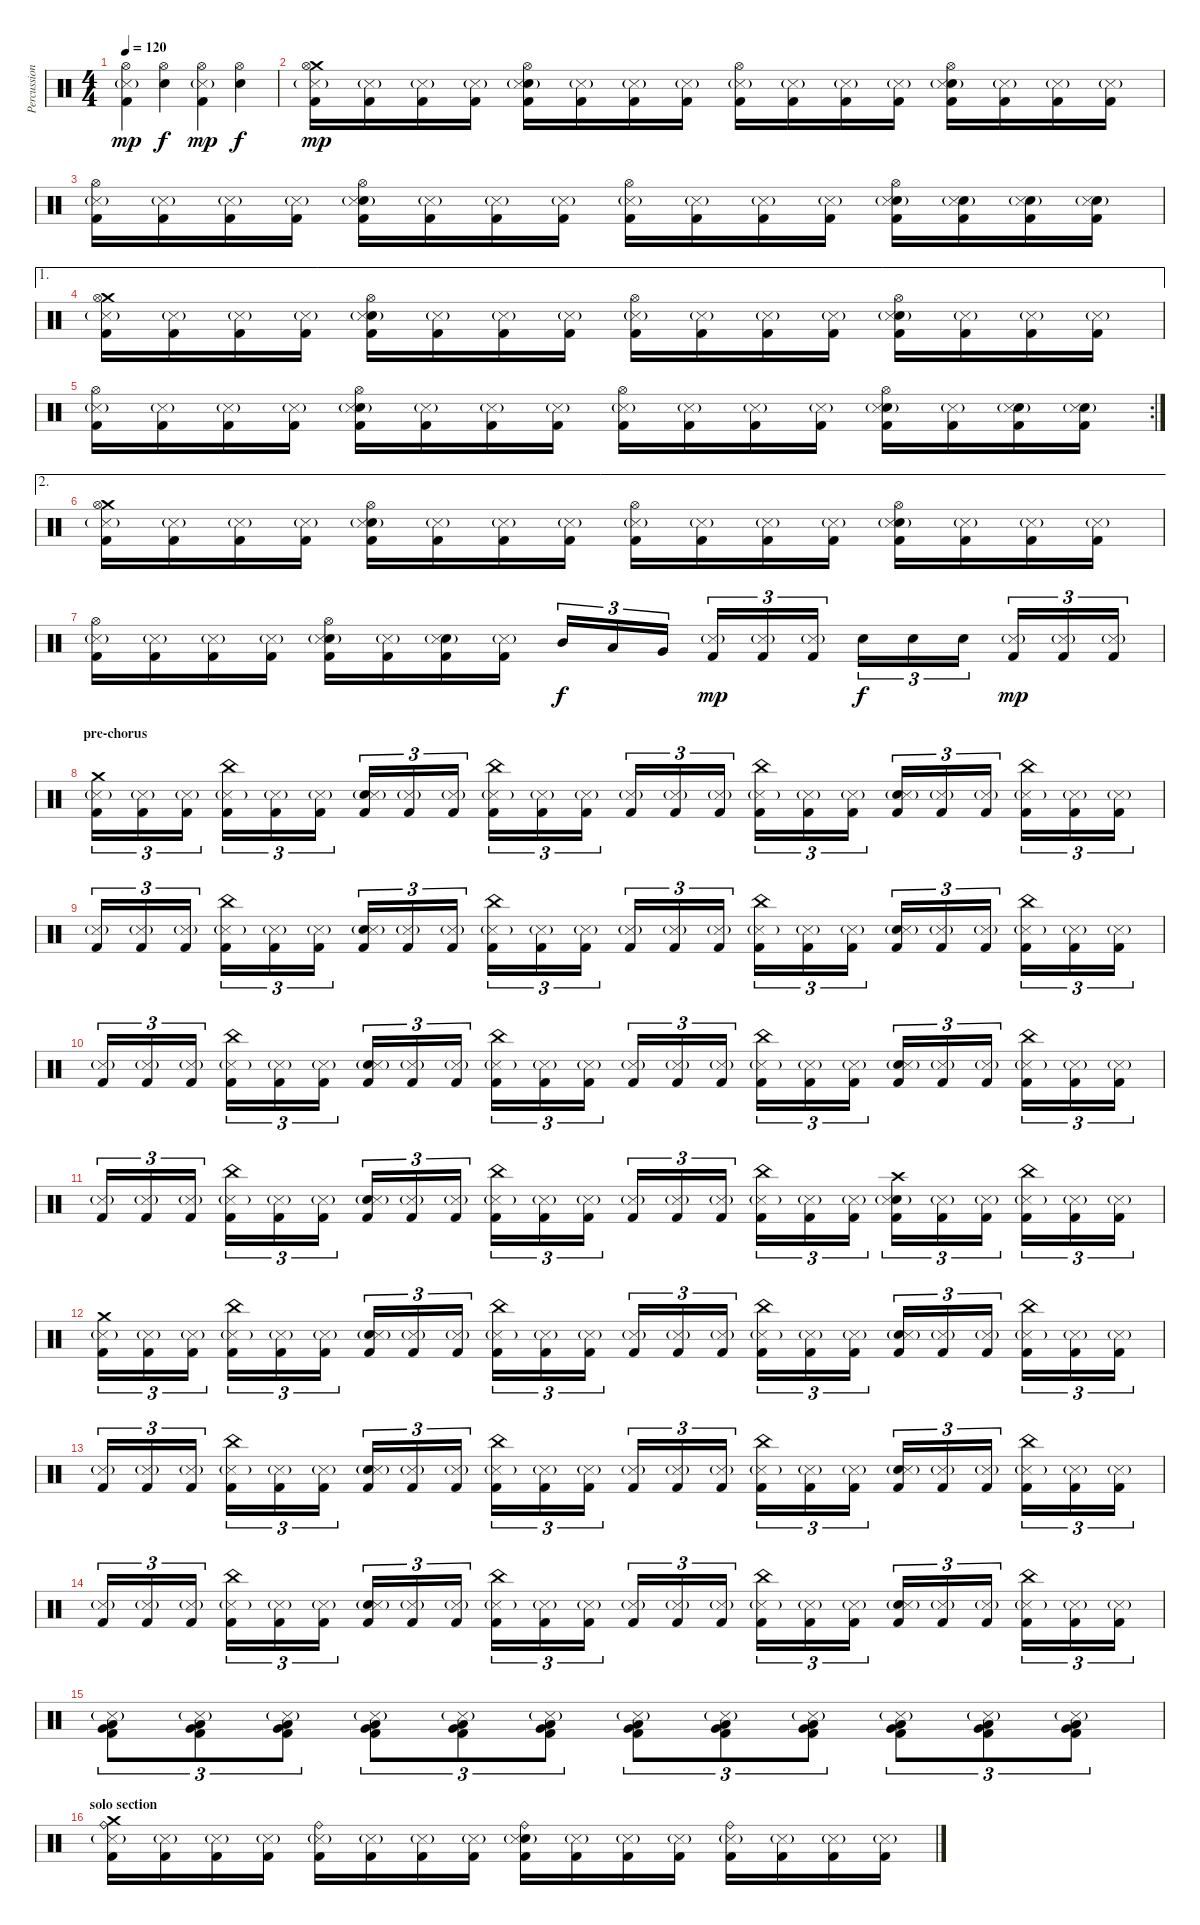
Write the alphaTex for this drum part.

\track ("Percussion" "Percussion") {instrument percussion}
\staff {score}
\articulation defaults
\ts (4 4)
\tempo 120
\clef neutral
\ks c
("Hi-Hat (open)" "Snare (side stick) 3"{g} "Kick (hit) 2").4{dy mp} ("Hi-Hat (open)" "Electric Snare (hit)").4{dy f} ("Hi-Hat (open)" "Snare (side stick) 3"{g} "Kick (hit) 2").4{dy mp} ("Hi-Hat (open)" "Electric Snare (hit)").4{dy f} |
("Crash medium (hit)" "Hi-Hat (open)" "Snare (side stick) 3"{g} "Kick (hit) 2").16{dy mp} ("Snare (side stick) 3"{g} "Kick (hit) 2").16 ("Snare (side stick) 3"{g} "Kick (hit) 2").16 ("Snare (side stick) 3"{g} "Kick (hit) 2").16 ("Hi-Hat (open)" "Electric Snare (hit)" "Snare (side stick) 3"{g} "Kick (hit) 2").16 ("Snare (side stick) 3"{g} "Kick (hit) 2").16 ("Snare (side stick) 3"{g} "Kick (hit) 2").16 ("Snare (side stick) 3"{g} "Kick (hit) 2").16 ("Hi-Hat (open)" "Snare (side stick) 3"{g} "Kick (hit) 2").16 ("Snare (side stick) 3"{g} "Kick (hit) 2").16 ("Snare (side stick) 3"{g} "Kick (hit) 2").16 ("Snare (side stick) 3"{g} "Kick (hit) 2").16 ("Hi-Hat (open)" "Electric Snare (hit)" "Snare (side stick) 3"{g} "Kick (hit) 2").16 ("Snare (side stick) 3"{g} "Kick (hit) 2").16 ("Snare (side stick) 3"{g} "Kick (hit) 2").16 ("Snare (side stick) 3"{g} "Kick (hit) 2").16 |
("Hi-Hat (open)" "Snare (side stick) 3"{g} "Kick (hit) 2").16 ("Snare (side stick) 3"{g} "Kick (hit) 2").16 ("Snare (side stick) 3"{g} "Kick (hit) 2").16 ("Snare (side stick) 3"{g} "Kick (hit) 2").16 ("Hi-Hat (open)" "Electric Snare (hit)" "Snare (side stick) 3"{g} "Kick (hit) 2").16 ("Snare (side stick) 3"{g} "Kick (hit) 2").16 ("Snare (side stick) 3"{g} "Kick (hit) 2").16 ("Snare (side stick) 3"{g} "Kick (hit) 2").16 ("Hi-Hat (open)" "Snare (side stick) 3"{g} "Kick (hit) 2").16 ("Snare (side stick) 3"{g} "Kick (hit) 2").16 ("Snare (side stick) 3"{g} "Kick (hit) 2").16 ("Snare (side stick) 3"{g} "Kick (hit) 2").16 ("Hi-Hat (open)" "Electric Snare (hit)" "Snare (side stick) 3"{g} "Kick (hit) 2").16 ("Electric Snare (hit)" "Snare (side stick) 3"{g} "Kick (hit) 2").16 ("Electric Snare (hit)" "Snare (side stick) 3"{g} "Kick (hit) 2").16 ("Electric Snare (hit)" "Snare (side stick) 3"{g} "Kick (hit) 2").16 |
\ae 1
("Crash medium (hit)" "Hi-Hat (open)" "Snare (side stick) 3"{g} "Kick (hit) 2").16 ("Snare (side stick) 3"{g} "Kick (hit) 2").16 ("Snare (side stick) 3"{g} "Kick (hit) 2").16 ("Snare (side stick) 3"{g} "Kick (hit) 2").16 ("Hi-Hat (open)" "Electric Snare (hit)" "Snare (side stick) 3"{g} "Kick (hit) 2").16 ("Snare (side stick) 3"{g} "Kick (hit) 2").16 ("Snare (side stick) 3"{g} "Kick (hit) 2").16 ("Snare (side stick) 3"{g} "Kick (hit) 2").16 ("Hi-Hat (open)" "Snare (side stick) 3"{g} "Kick (hit) 2").16 ("Snare (side stick) 3"{g} "Kick (hit) 2").16 ("Snare (side stick) 3"{g} "Kick (hit) 2").16 ("Snare (side stick) 3"{g} "Kick (hit) 2").16 ("Hi-Hat (open)" "Electric Snare (hit)" "Snare (side stick) 3"{g} "Kick (hit) 2").16 ("Snare (side stick) 3"{g} "Kick (hit) 2").16 ("Snare (side stick) 3"{g} "Kick (hit) 2").16 ("Snare (side stick) 3"{g} "Kick (hit) 2").16 |
\rc 2
("Hi-Hat (open)" "Snare (side stick) 3"{g} "Kick (hit) 2").16 ("Snare (side stick) 3"{g} "Kick (hit) 2").16 ("Snare (side stick) 3"{g} "Kick (hit) 2").16 ("Snare (side stick) 3"{g} "Kick (hit) 2").16 ("Hi-Hat (open)" "Electric Snare (hit)" "Snare (side stick) 3"{g} "Kick (hit) 2").16 ("Snare (side stick) 3"{g} "Kick (hit) 2").16 ("Snare (side stick) 3"{g} "Kick (hit) 2").16 ("Snare (side stick) 3"{g} "Kick (hit) 2").16 ("Hi-Hat (open)" "Snare (side stick) 3"{g} "Kick (hit) 2").16 ("Snare (side stick) 3"{g} "Kick (hit) 2").16 ("Snare (side stick) 3"{g} "Kick (hit) 2").16 ("Snare (side stick) 3"{g} "Kick (hit) 2").16 ("Hi-Hat (open)" "Electric Snare (hit)" "Snare (side stick) 3"{g} "Kick (hit) 2").16 ("Snare (side stick) 3"{g} "Kick (hit) 2").16 ("Electric Snare (hit)" "Snare (side stick) 3"{g} "Kick (hit) 2").16 ("Electric Snare (hit)" "Snare (side stick) 3"{g} "Kick (hit) 2").16 |
\ae 2
("Crash medium (hit)" "Hi-Hat (open)" "Snare (side stick) 3"{g} "Kick (hit) 2").16 ("Snare (side stick) 3"{g} "Kick (hit) 2").16 ("Snare (side stick) 3"{g} "Kick (hit) 2").16 ("Snare (side stick) 3"{g} "Kick (hit) 2").16 ("Hi-Hat (open)" "Electric Snare (hit)" "Snare (side stick) 3"{g} "Kick (hit) 2").16 ("Snare (side stick) 3"{g} "Kick (hit) 2").16 ("Snare (side stick) 3"{g} "Kick (hit) 2").16 ("Snare (side stick) 3"{g} "Kick (hit) 2").16 ("Hi-Hat (open)" "Snare (side stick) 3"{g} "Kick (hit) 2").16 ("Snare (side stick) 3"{g} "Kick (hit) 2").16 ("Snare (side stick) 3"{g} "Kick (hit) 2").16 ("Snare (side stick) 3"{g} "Kick (hit) 2").16 ("Hi-Hat (open)" "Electric Snare (hit)" "Snare (side stick) 3"{g} "Kick (hit) 2").16 ("Snare (side stick) 3"{g} "Kick (hit) 2").16 ("Snare (side stick) 3"{g} "Kick (hit) 2").16 ("Snare (side stick) 3"{g} "Kick (hit) 2").16 |
("Hi-Hat (open)" "Snare (side stick) 3"{g} "Kick (hit) 2").16 ("Snare (side stick) 3"{g} "Kick (hit) 2").16 ("Snare (side stick) 3"{g} "Kick (hit) 2").16 ("Snare (side stick) 3"{g} "Kick (hit) 2").16 ("Hi-Hat (open)" "Electric Snare (hit)" "Snare (side stick) 3"{g} "Kick (hit) 2").16 ("Snare (side stick) 3"{g} "Kick (hit) 2").16 ("Electric Snare (hit)" "Snare (side stick) 3"{g} "Kick (hit) 2").16 ("Snare (side stick) 3"{g} "Kick (hit) 2").16 "Mid Tom (hit)".16{tu (3 2) dy f} "Low Tom (hit)".16{tu (3 2)} "Very Low Tom (hit)".16{tu (3 2)} ("Snare (side stick) 3"{g} "Kick (hit) 2").16{tu (3 2) dy mp} ("Snare (side stick) 3"{g} "Kick (hit) 2").16{tu (3 2)} ("Snare (side stick) 3"{g} "Kick (hit) 2").16{tu (3 2)} "Electric Snare (hit)".16{tu (3 2) dy f} "Electric Snare (hit)".16{tu (3 2)} "Electric Snare (hit)".16{tu (3 2)} ("Snare (side stick) 3"{g} "Kick (hit) 2").16{tu (3 2) dy mp} ("Snare (side stick) 3"{g} "Kick (hit) 2").16{tu (3 2)} ("Snare (side stick) 3"{g} "Kick (hit) 2").16{tu (3 2)} |
\section ("" "pre-chorus")
("Crash medium (hit)" "Snare (side stick) 3"{g} "Kick (hit) 2").16{tu (3 2)} ("Snare (side stick) 3"{g} "Kick (hit) 2").16{tu (3 2)} ("Snare (side stick) 3"{g} "Kick (hit) 2").16{tu (3 2)} ("China (hit)" "Snare (side stick) 3"{g} "Kick (hit) 2").16{tu (3 2)} ("Snare (side stick) 3"{g} "Kick (hit) 2").16{tu (3 2)} ("Snare (side stick) 3"{g} "Kick (hit) 2").16{tu (3 2)} ("Electric Snare (hit)" "Snare (side stick) 3"{g} "Kick (hit) 2").16{tu (3 2)} ("Snare (side stick) 3"{g} "Kick (hit) 2").16{tu (3 2)} ("Snare (side stick) 3"{g} "Kick (hit) 2").16{tu (3 2)} ("China (hit)" "Snare (side stick) 3"{g} "Kick (hit) 2").16{tu (3 2)} ("Snare (side stick) 3"{g} "Kick (hit) 2").16{tu (3 2)} ("Snare (side stick) 3"{g} "Kick (hit) 2").16{tu (3 2)} ("Snare (side stick) 3"{g} "Kick (hit) 2").16{tu (3 2)} ("Snare (side stick) 3"{g} "Kick (hit) 2").16{tu (3 2)} ("Snare (side stick) 3"{g} "Kick (hit) 2").16{tu (3 2)} ("China (hit)" "Snare (side stick) 3"{g} "Kick (hit) 2").16{tu (3 2)} ("Snare (side stick) 3"{g} "Kick (hit) 2").16{tu (3 2)} ("Snare (side stick) 3"{g} "Kick (hit) 2").16{tu (3 2)} ("Electric Snare (hit)" "Snare (side stick) 3"{g} "Kick (hit) 2").16{tu (3 2)} ("Snare (side stick) 3"{g} "Kick (hit) 2").16{tu (3 2)} ("Snare (side stick) 3"{g} "Kick (hit) 2").16{tu (3 2)} ("China (hit)" "Snare (side stick) 3"{g} "Kick (hit) 2").16{tu (3 2)} ("Snare (side stick) 3"{g} "Kick (hit) 2").16{tu (3 2)} ("Snare (side stick) 3"{g} "Kick (hit) 2").16{tu (3 2)} |
("Snare (side stick) 3"{g} "Kick (hit) 2").16{tu (3 2)} ("Snare (side stick) 3"{g} "Kick (hit) 2").16{tu (3 2)} ("Snare (side stick) 3"{g} "Kick (hit) 2").16{tu (3 2)} ("China (hit)" "Snare (side stick) 3"{g} "Kick (hit) 2").16{tu (3 2)} ("Snare (side stick) 3"{g} "Kick (hit) 2").16{tu (3 2)} ("Snare (side stick) 3"{g} "Kick (hit) 2").16{tu (3 2)} ("Electric Snare (hit)" "Snare (side stick) 3"{g} "Kick (hit) 2").16{tu (3 2)} ("Snare (side stick) 3"{g} "Kick (hit) 2").16{tu (3 2)} ("Snare (side stick) 3"{g} "Kick (hit) 2").16{tu (3 2)} ("China (hit)" "Snare (side stick) 3"{g} "Kick (hit) 2").16{tu (3 2)} ("Snare (side stick) 3"{g} "Kick (hit) 2").16{tu (3 2)} ("Snare (side stick) 3"{g} "Kick (hit) 2").16{tu (3 2)} ("Snare (side stick) 3"{g} "Kick (hit) 2").16{tu (3 2)} ("Snare (side stick) 3"{g} "Kick (hit) 2").16{tu (3 2)} ("Snare (side stick) 3"{g} "Kick (hit) 2").16{tu (3 2)} ("China (hit)" "Snare (side stick) 3"{g} "Kick (hit) 2").16{tu (3 2)} ("Snare (side stick) 3"{g} "Kick (hit) 2").16{tu (3 2)} ("Snare (side stick) 3"{g} "Kick (hit) 2").16{tu (3 2)} ("Electric Snare (hit)" "Snare (side stick) 3"{g} "Kick (hit) 2").16{tu (3 2)} ("Snare (side stick) 3"{g} "Kick (hit) 2").16{tu (3 2)} ("Snare (side stick) 3"{g} "Kick (hit) 2").16{tu (3 2)} ("China (hit)" "Snare (side stick) 3"{g} "Kick (hit) 2").16{tu (3 2)} ("Snare (side stick) 3"{g} "Kick (hit) 2").16{tu (3 2)} ("Snare (side stick) 3"{g} "Kick (hit) 2").16{tu (3 2)} |
("Snare (side stick) 3"{g} "Kick (hit) 2").16{tu (3 2)} ("Snare (side stick) 3"{g} "Kick (hit) 2").16{tu (3 2)} ("Snare (side stick) 3"{g} "Kick (hit) 2").16{tu (3 2)} ("China (hit)" "Snare (side stick) 3"{g} "Kick (hit) 2").16{tu (3 2)} ("Snare (side stick) 3"{g} "Kick (hit) 2").16{tu (3 2)} ("Snare (side stick) 3"{g} "Kick (hit) 2").16{tu (3 2)} ("Electric Snare (hit)" "Snare (side stick) 3"{g} "Kick (hit) 2").16{tu (3 2)} ("Snare (side stick) 3"{g} "Kick (hit) 2").16{tu (3 2)} ("Snare (side stick) 3"{g} "Kick (hit) 2").16{tu (3 2)} ("China (hit)" "Snare (side stick) 3"{g} "Kick (hit) 2").16{tu (3 2)} ("Snare (side stick) 3"{g} "Kick (hit) 2").16{tu (3 2)} ("Snare (side stick) 3"{g} "Kick (hit) 2").16{tu (3 2)} ("Snare (side stick) 3"{g} "Kick (hit) 2").16{tu (3 2)} ("Snare (side stick) 3"{g} "Kick (hit) 2").16{tu (3 2)} ("Snare (side stick) 3"{g} "Kick (hit) 2").16{tu (3 2)} ("China (hit)" "Snare (side stick) 3"{g} "Kick (hit) 2").16{tu (3 2)} ("Snare (side stick) 3"{g} "Kick (hit) 2").16{tu (3 2)} ("Snare (side stick) 3"{g} "Kick (hit) 2").16{tu (3 2)} ("Electric Snare (hit)" "Snare (side stick) 3"{g} "Kick (hit) 2").16{tu (3 2)} ("Snare (side stick) 3"{g} "Kick (hit) 2").16{tu (3 2)} ("Snare (side stick) 3"{g} "Kick (hit) 2").16{tu (3 2)} ("China (hit)" "Snare (side stick) 3"{g} "Kick (hit) 2").16{tu (3 2)} ("Snare (side stick) 3"{g} "Kick (hit) 2").16{tu (3 2)} ("Snare (side stick) 3"{g} "Kick (hit) 2").16{tu (3 2)} |
("Snare (side stick) 3"{g} "Kick (hit) 2").16{tu (3 2)} ("Snare (side stick) 3"{g} "Kick (hit) 2").16{tu (3 2)} ("Snare (side stick) 3"{g} "Kick (hit) 2").16{tu (3 2)} ("China (hit)" "Snare (side stick) 3"{g} "Kick (hit) 2").16{tu (3 2)} ("Snare (side stick) 3"{g} "Kick (hit) 2").16{tu (3 2)} ("Snare (side stick) 3"{g} "Kick (hit) 2").16{tu (3 2)} ("Electric Snare (hit)" "Snare (side stick) 3"{g} "Kick (hit) 2").16{tu (3 2)} ("Snare (side stick) 3"{g} "Kick (hit) 2").16{tu (3 2)} ("Snare (side stick) 3"{g} "Kick (hit) 2").16{tu (3 2)} ("China (hit)" "Snare (side stick) 3"{g} "Kick (hit) 2").16{tu (3 2)} ("Snare (side stick) 3"{g} "Kick (hit) 2").16{tu (3 2)} ("Snare (side stick) 3"{g} "Kick (hit) 2").16{tu (3 2)} ("Snare (side stick) 3"{g} "Kick (hit) 2").16{tu (3 2)} ("Snare (side stick) 3"{g} "Kick (hit) 2").16{tu (3 2)} ("Snare (side stick) 3"{g} "Kick (hit) 2").16{tu (3 2)} ("China (hit)" "Snare (side stick) 3"{g} "Kick (hit) 2").16{tu (3 2)} ("Snare (side stick) 3"{g} "Kick (hit) 2").16{tu (3 2)} ("Snare (side stick) 3"{g} "Kick (hit) 2").16{tu (3 2)} ("Crash high (hit)" "Electric Snare (hit)" "Snare (side stick) 3"{g} "Kick (hit) 2").16{tu (3 2)} ("Snare (side stick) 3"{g} "Kick (hit) 2").16{tu (3 2)} ("Snare (side stick) 3"{g} "Kick (hit) 2").16{tu (3 2)} ("China (hit)" "Snare (side stick) 3"{g} "Kick (hit) 2").16{tu (3 2)} ("Snare (side stick) 3"{g} "Kick (hit) 2").16{tu (3 2)} ("Snare (side stick) 3"{g} "Kick (hit) 2").16{tu (3 2)} |
("Crash medium (hit)" "Snare (side stick) 3"{g} "Kick (hit) 2").16{tu (3 2)} ("Snare (side stick) 3"{g} "Kick (hit) 2").16{tu (3 2)} ("Snare (side stick) 3"{g} "Kick (hit) 2").16{tu (3 2)} ("China (hit)" "Snare (side stick) 3"{g} "Kick (hit) 2").16{tu (3 2)} ("Snare (side stick) 3"{g} "Kick (hit) 2").16{tu (3 2)} ("Snare (side stick) 3"{g} "Kick (hit) 2").16{tu (3 2)} ("Electric Snare (hit)" "Snare (side stick) 3"{g} "Kick (hit) 2").16{tu (3 2)} ("Snare (side stick) 3"{g} "Kick (hit) 2").16{tu (3 2)} ("Snare (side stick) 3"{g} "Kick (hit) 2").16{tu (3 2)} ("China (hit)" "Snare (side stick) 3"{g} "Kick (hit) 2").16{tu (3 2)} ("Snare (side stick) 3"{g} "Kick (hit) 2").16{tu (3 2)} ("Snare (side stick) 3"{g} "Kick (hit) 2").16{tu (3 2)} ("Snare (side stick) 3"{g} "Kick (hit) 2").16{tu (3 2)} ("Snare (side stick) 3"{g} "Kick (hit) 2").16{tu (3 2)} ("Snare (side stick) 3"{g} "Kick (hit) 2").16{tu (3 2)} ("China (hit)" "Snare (side stick) 3"{g} "Kick (hit) 2").16{tu (3 2)} ("Snare (side stick) 3"{g} "Kick (hit) 2").16{tu (3 2)} ("Snare (side stick) 3"{g} "Kick (hit) 2").16{tu (3 2)} ("Electric Snare (hit)" "Snare (side stick) 3"{g} "Kick (hit) 2").16{tu (3 2)} ("Snare (side stick) 3"{g} "Kick (hit) 2").16{tu (3 2)} ("Snare (side stick) 3"{g} "Kick (hit) 2").16{tu (3 2)} ("China (hit)" "Snare (side stick) 3"{g} "Kick (hit) 2").16{tu (3 2)} ("Snare (side stick) 3"{g} "Kick (hit) 2").16{tu (3 2)} ("Snare (side stick) 3"{g} "Kick (hit) 2").16{tu (3 2)} |
("Snare (side stick) 3"{g} "Kick (hit) 2").16{tu (3 2)} ("Snare (side stick) 3"{g} "Kick (hit) 2").16{tu (3 2)} ("Snare (side stick) 3"{g} "Kick (hit) 2").16{tu (3 2)} ("China (hit)" "Snare (side stick) 3"{g} "Kick (hit) 2").16{tu (3 2)} ("Snare (side stick) 3"{g} "Kick (hit) 2").16{tu (3 2)} ("Snare (side stick) 3"{g} "Kick (hit) 2").16{tu (3 2)} ("Electric Snare (hit)" "Snare (side stick) 3"{g} "Kick (hit) 2").16{tu (3 2)} ("Snare (side stick) 3"{g} "Kick (hit) 2").16{tu (3 2)} ("Snare (side stick) 3"{g} "Kick (hit) 2").16{tu (3 2)} ("China (hit)" "Snare (side stick) 3"{g} "Kick (hit) 2").16{tu (3 2)} ("Snare (side stick) 3"{g} "Kick (hit) 2").16{tu (3 2)} ("Snare (side stick) 3"{g} "Kick (hit) 2").16{tu (3 2)} ("Snare (side stick) 3"{g} "Kick (hit) 2").16{tu (3 2)} ("Snare (side stick) 3"{g} "Kick (hit) 2").16{tu (3 2)} ("Snare (side stick) 3"{g} "Kick (hit) 2").16{tu (3 2)} ("China (hit)" "Snare (side stick) 3"{g} "Kick (hit) 2").16{tu (3 2)} ("Snare (side stick) 3"{g} "Kick (hit) 2").16{tu (3 2)} ("Snare (side stick) 3"{g} "Kick (hit) 2").16{tu (3 2)} ("Electric Snare (hit)" "Snare (side stick) 3"{g} "Kick (hit) 2").16{tu (3 2)} ("Snare (side stick) 3"{g} "Kick (hit) 2").16{tu (3 2)} ("Snare (side stick) 3"{g} "Kick (hit) 2").16{tu (3 2)} ("China (hit)" "Snare (side stick) 3"{g} "Kick (hit) 2").16{tu (3 2)} ("Snare (side stick) 3"{g} "Kick (hit) 2").16{tu (3 2)} ("Snare (side stick) 3"{g} "Kick (hit) 2").16{tu (3 2)} |
("Snare (side stick) 3"{g} "Kick (hit) 2").16{tu (3 2)} ("Snare (side stick) 3"{g} "Kick (hit) 2").16{tu (3 2)} ("Snare (side stick) 3"{g} "Kick (hit) 2").16{tu (3 2)} ("China (hit)" "Snare (side stick) 3"{g} "Kick (hit) 2").16{tu (3 2)} ("Snare (side stick) 3"{g} "Kick (hit) 2").16{tu (3 2)} ("Snare (side stick) 3"{g} "Kick (hit) 2").16{tu (3 2)} ("Electric Snare (hit)" "Snare (side stick) 3"{g} "Kick (hit) 2").16{tu (3 2)} ("Snare (side stick) 3"{g} "Kick (hit) 2").16{tu (3 2)} ("Snare (side stick) 3"{g} "Kick (hit) 2").16{tu (3 2)} ("China (hit)" "Snare (side stick) 3"{g} "Kick (hit) 2").16{tu (3 2)} ("Snare (side stick) 3"{g} "Kick (hit) 2").16{tu (3 2)} ("Snare (side stick) 3"{g} "Kick (hit) 2").16{tu (3 2)} ("Snare (side stick) 3"{g} "Kick (hit) 2").16{tu (3 2)} ("Snare (side stick) 3"{g} "Kick (hit) 2").16{tu (3 2)} ("Snare (side stick) 3"{g} "Kick (hit) 2").16{tu (3 2)} ("China (hit)" "Snare (side stick) 3"{g} "Kick (hit) 2").16{tu (3 2)} ("Snare (side stick) 3"{g} "Kick (hit) 2").16{tu (3 2)} ("Snare (side stick) 3"{g} "Kick (hit) 2").16{tu (3 2)} ("Electric Snare (hit)" "Snare (side stick) 3"{g} "Kick (hit) 2").16{tu (3 2)} ("Snare (side stick) 3"{g} "Kick (hit) 2").16{tu (3 2)} ("Snare (side stick) 3"{g} "Kick (hit) 2").16{tu (3 2)} ("China (hit)" "Snare (side stick) 3"{g} "Kick (hit) 2").16{tu (3 2)} ("Snare (side stick) 3"{g} "Kick (hit) 2").16{tu (3 2)} ("Snare (side stick) 3"{g} "Kick (hit) 2").16{tu (3 2)} |
("Very Low Tom (hit)" "Low Floor Tom (hit)" "Snare (side stick) 3"{g} "Kick (hit) 2").8{tu (3 2)} ("Very Low Tom (hit)" "Low Floor Tom (hit)" "Snare (side stick) 3"{g} "Kick (hit) 2").8{tu (3 2)} ("Very Low Tom (hit)" "Low Floor Tom (hit)" "Snare (side stick) 3"{g} "Kick (hit) 2").8{tu (3 2)} ("Very Low Tom (hit)" "Low Floor Tom (hit)" "Snare (side stick) 3"{g} "Kick (hit) 2").8{tu (3 2)} ("Very Low Tom (hit)" "Low Floor Tom (hit)" "Snare (side stick) 3"{g} "Kick (hit) 2").8{tu (3 2)} ("Very Low Tom (hit)" "Low Floor Tom (hit)" "Snare (side stick) 3"{g} "Kick (hit) 2").8{tu (3 2)} ("Very Low Tom (hit)" "Low Floor Tom (hit)" "Snare (side stick) 3"{g} "Kick (hit) 2").8{tu (3 2)} ("Very Low Tom (hit)" "Low Floor Tom (hit)" "Snare (side stick) 3"{g} "Kick (hit) 2").8{tu (3 2)} ("Very Low Tom (hit)" "Low Floor Tom (hit)" "Snare (side stick) 3"{g} "Kick (hit) 2").8{tu (3 2)} ("Very Low Tom (hit)" "Low Floor Tom (hit)" "Snare (side stick) 3"{g} "Kick (hit) 2").8{tu (3 2)} ("Very Low Tom (hit)" "Low Floor Tom (hit)" "Snare (side stick) 3"{g} "Kick (hit) 2").8{tu (3 2)} ("Very Low Tom (hit)" "Low Floor Tom (hit)" "Snare (side stick) 3"{g} "Kick (hit) 2").8{tu (3 2)} |
\section ("" "solo section")
("Crash medium (hit)" "Ride (bell)" "Snare (side stick) 3"{g} "Kick (hit) 2").16 ("Snare (side stick) 3"{g} "Kick (hit) 2").16 ("Snare (side stick) 3"{g} "Kick (hit) 2").16 ("Snare (side stick) 3"{g} "Kick (hit) 2").16 ("Ride (bell)" "Snare (side stick) 3"{g} "Kick (hit) 2").16 ("Snare (side stick) 3"{g} "Kick (hit) 2").16 ("Snare (side stick) 3"{g} "Kick (hit) 2").16 ("Snare (side stick) 3"{g} "Kick (hit) 2").16 ("Ride (bell)" "Electric Snare (hit)" "Snare (side stick) 3"{g} "Kick (hit) 2").16 ("Snare (side stick) 3"{g} "Kick (hit) 2").16 ("Snare (side stick) 3"{g} "Kick (hit) 2").16 ("Snare (side stick) 3"{g} "Kick (hit) 2").16 ("Ride (bell)" "Snare (side stick) 3"{g} "Kick (hit) 2").16 ("Snare (side stick) 3"{g} "Kick (hit) 2").16 ("Snare (side stick) 3"{g} "Kick (hit) 2").16 ("Snare (side stick) 3"{g} "Kick (hit) 2").16
